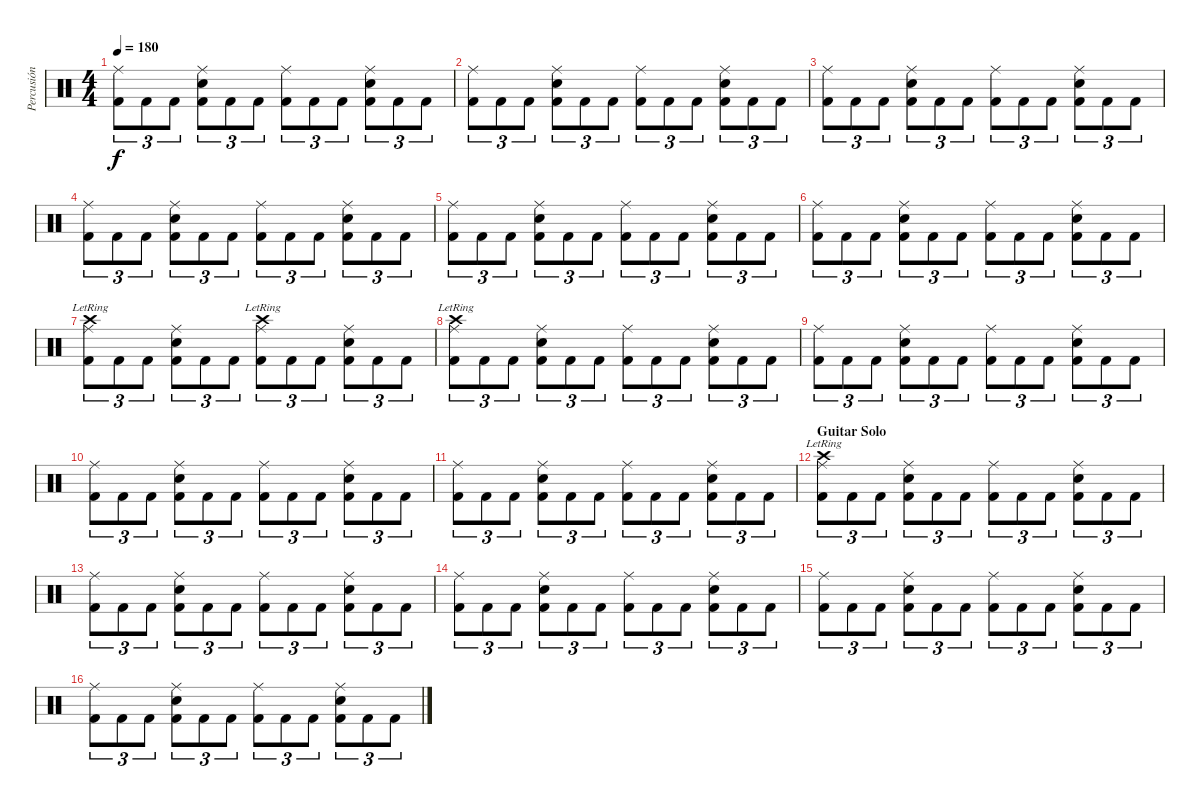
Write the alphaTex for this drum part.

\track ("Percusión" "Percusión") {instrument percussion}
\staff {score}
\articulation defaults
\ts (4 4)
\tempo 180
\clef neutral
\ks c
("Ride (middle)" "Kick (hit) 2").8{tu (3 2) dy f} "Kick (hit) 2".8{tu (3 2)} "Kick (hit) 2".8{tu (3 2)} ("Ride (middle)" "Snare (hit) 2" "Kick (hit) 2").8{tu (3 2)} "Kick (hit) 2".8{tu (3 2)} "Kick (hit) 2".8{tu (3 2)} ("Ride (middle)" "Kick (hit) 2").8{tu (3 2)} "Kick (hit) 2".8{tu (3 2)} "Kick (hit) 2".8{tu (3 2)} ("Ride (middle)" "Snare (hit) 2" "Kick (hit) 2").8{tu (3 2)} "Kick (hit) 2".8{tu (3 2)} "Kick (hit) 2".8{tu (3 2)} |
("Ride (middle)" "Kick (hit) 2").8{tu (3 2)} "Kick (hit) 2".8{tu (3 2)} "Kick (hit) 2".8{tu (3 2)} ("Ride (middle)" "Snare (hit) 2" "Kick (hit) 2").8{tu (3 2)} "Kick (hit) 2".8{tu (3 2)} "Kick (hit) 2".8{tu (3 2)} ("Ride (middle)" "Kick (hit) 2").8{tu (3 2)} "Kick (hit) 2".8{tu (3 2)} "Kick (hit) 2".8{tu (3 2)} ("Ride (middle)" "Snare (hit) 2" "Kick (hit) 2").8{tu (3 2)} "Kick (hit) 2".8{tu (3 2)} "Kick (hit) 2".8{tu (3 2)} |
("Ride (middle)" "Kick (hit) 2").8{tu (3 2)} "Kick (hit) 2".8{tu (3 2)} "Kick (hit) 2".8{tu (3 2)} ("Ride (middle)" "Snare (hit) 2" "Kick (hit) 2").8{tu (3 2)} "Kick (hit) 2".8{tu (3 2)} "Kick (hit) 2".8{tu (3 2)} ("Ride (middle)" "Kick (hit) 2").8{tu (3 2)} "Kick (hit) 2".8{tu (3 2)} "Kick (hit) 2".8{tu (3 2)} ("Ride (middle)" "Snare (hit) 2" "Kick (hit) 2").8{tu (3 2)} "Kick (hit) 2".8{tu (3 2)} "Kick (hit) 2".8{tu (3 2)} |
("Ride (middle)" "Kick (hit) 2").8{tu (3 2)} "Kick (hit) 2".8{tu (3 2)} "Kick (hit) 2".8{tu (3 2)} ("Ride (middle)" "Snare (hit) 2" "Kick (hit) 2").8{tu (3 2)} "Kick (hit) 2".8{tu (3 2)} "Kick (hit) 2".8{tu (3 2)} ("Ride (middle)" "Kick (hit) 2").8{tu (3 2)} "Kick (hit) 2".8{tu (3 2)} "Kick (hit) 2".8{tu (3 2)} ("Ride (middle)" "Snare (hit) 2" "Kick (hit) 2").8{tu (3 2)} "Kick (hit) 2".8{tu (3 2)} "Kick (hit) 2".8{tu (3 2)} |
("Ride (middle)" "Kick (hit) 2").8{tu (3 2)} "Kick (hit) 2".8{tu (3 2)} "Kick (hit) 2".8{tu (3 2)} ("Ride (middle)" "Snare (hit) 2" "Kick (hit) 2").8{tu (3 2)} "Kick (hit) 2".8{tu (3 2)} "Kick (hit) 2".8{tu (3 2)} ("Ride (middle)" "Kick (hit) 2").8{tu (3 2)} "Kick (hit) 2".8{tu (3 2)} "Kick (hit) 2".8{tu (3 2)} ("Ride (middle)" "Snare (hit) 2" "Kick (hit) 2").8{tu (3 2)} "Kick (hit) 2".8{tu (3 2)} "Kick (hit) 2".8{tu (3 2)} |
("Ride (middle)" "Kick (hit) 2").8{tu (3 2)} "Kick (hit) 2".8{tu (3 2)} "Kick (hit) 2".8{tu (3 2)} ("Ride (middle)" "Snare (hit) 2" "Kick (hit) 2").8{tu (3 2)} "Kick (hit) 2".8{tu (3 2)} "Kick (hit) 2".8{tu (3 2)} ("Ride (middle)" "Kick (hit) 2").8{tu (3 2)} "Kick (hit) 2".8{tu (3 2)} "Kick (hit) 2".8{tu (3 2)} ("Ride (middle)" "Snare (hit) 2" "Kick (hit) 2").8{tu (3 2)} "Kick (hit) 2".8{tu (3 2)} "Kick (hit) 2".8{tu (3 2)} |
("Crash high (hit)"{lr} "Ride (middle)" "Kick (hit) 2").8{tu (3 2)} "Kick (hit) 2".8{tu (3 2)} "Kick (hit) 2".8{tu (3 2)} ("Ride (middle)" "Snare (hit) 2" "Kick (hit) 2").8{tu (3 2)} "Kick (hit) 2".8{tu (3 2)} "Kick (hit) 2".8{tu (3 2)} ("Crash high (hit)"{lr} "Ride (middle)" "Kick (hit) 2").8{tu (3 2)} "Kick (hit) 2".8{tu (3 2)} "Kick (hit) 2".8{tu (3 2)} ("Ride (middle)" "Snare (hit) 2" "Kick (hit) 2").8{tu (3 2)} "Kick (hit) 2".8{tu (3 2)} "Kick (hit) 2".8{tu (3 2)} |
("Crash high (hit)"{lr} "Ride (middle)" "Kick (hit) 2").8{tu (3 2)} "Kick (hit) 2".8{tu (3 2)} "Kick (hit) 2".8{tu (3 2)} ("Ride (middle)" "Snare (hit) 2" "Kick (hit) 2").8{tu (3 2)} "Kick (hit) 2".8{tu (3 2)} "Kick (hit) 2".8{tu (3 2)} ("Ride (middle)" "Kick (hit) 2").8{tu (3 2)} "Kick (hit) 2".8{tu (3 2)} "Kick (hit) 2".8{tu (3 2)} ("Ride (middle)" "Snare (hit) 2" "Kick (hit) 2").8{tu (3 2)} "Kick (hit) 2".8{tu (3 2)} "Kick (hit) 2".8{tu (3 2)} |
("Ride (middle)" "Kick (hit) 2").8{tu (3 2)} "Kick (hit) 2".8{tu (3 2)} "Kick (hit) 2".8{tu (3 2)} ("Ride (middle)" "Snare (hit) 2" "Kick (hit) 2").8{tu (3 2)} "Kick (hit) 2".8{tu (3 2)} "Kick (hit) 2".8{tu (3 2)} ("Ride (middle)" "Kick (hit) 2").8{tu (3 2)} "Kick (hit) 2".8{tu (3 2)} "Kick (hit) 2".8{tu (3 2)} ("Ride (middle)" "Snare (hit) 2" "Kick (hit) 2").8{tu (3 2)} "Kick (hit) 2".8{tu (3 2)} "Kick (hit) 2".8{tu (3 2)} |
("Ride (middle)" "Kick (hit) 2").8{tu (3 2)} "Kick (hit) 2".8{tu (3 2)} "Kick (hit) 2".8{tu (3 2)} ("Ride (middle)" "Snare (hit) 2" "Kick (hit) 2").8{tu (3 2)} "Kick (hit) 2".8{tu (3 2)} "Kick (hit) 2".8{tu (3 2)} ("Ride (middle)" "Kick (hit) 2").8{tu (3 2)} "Kick (hit) 2".8{tu (3 2)} "Kick (hit) 2".8{tu (3 2)} ("Ride (middle)" "Snare (hit) 2" "Kick (hit) 2").8{tu (3 2)} "Kick (hit) 2".8{tu (3 2)} "Kick (hit) 2".8{tu (3 2)} |
("Ride (middle)" "Kick (hit) 2").8{tu (3 2)} "Kick (hit) 2".8{tu (3 2)} "Kick (hit) 2".8{tu (3 2)} ("Ride (middle)" "Snare (hit) 2" "Kick (hit) 2").8{tu (3 2)} "Kick (hit) 2".8{tu (3 2)} "Kick (hit) 2".8{tu (3 2)} ("Ride (middle)" "Kick (hit) 2").8{tu (3 2)} "Kick (hit) 2".8{tu (3 2)} "Kick (hit) 2".8{tu (3 2)} ("Ride (middle)" "Snare (hit) 2" "Kick (hit) 2").8{tu (3 2)} "Kick (hit) 2".8{tu (3 2)} "Kick (hit) 2".8{tu (3 2)} |
\section ("" "Guitar Solo")
("Crash high (hit)"{lr} "Ride (middle)" "Kick (hit) 2").8{tu (3 2)} "Kick (hit) 2".8{tu (3 2)} "Kick (hit) 2".8{tu (3 2)} ("Ride (middle)" "Snare (hit) 2" "Kick (hit) 2").8{tu (3 2)} "Kick (hit) 2".8{tu (3 2)} "Kick (hit) 2".8{tu (3 2)} ("Ride (middle)" "Kick (hit) 2").8{tu (3 2)} "Kick (hit) 2".8{tu (3 2)} "Kick (hit) 2".8{tu (3 2)} ("Ride (middle)" "Snare (hit) 2" "Kick (hit) 2").8{tu (3 2)} "Kick (hit) 2".8{tu (3 2)} "Kick (hit) 2".8{tu (3 2)} |
("Ride (middle)" "Kick (hit) 2").8{tu (3 2)} "Kick (hit) 2".8{tu (3 2)} "Kick (hit) 2".8{tu (3 2)} ("Ride (middle)" "Snare (hit) 2" "Kick (hit) 2").8{tu (3 2)} "Kick (hit) 2".8{tu (3 2)} "Kick (hit) 2".8{tu (3 2)} ("Ride (middle)" "Kick (hit) 2").8{tu (3 2)} "Kick (hit) 2".8{tu (3 2)} "Kick (hit) 2".8{tu (3 2)} ("Ride (middle)" "Snare (hit) 2" "Kick (hit) 2").8{tu (3 2)} "Kick (hit) 2".8{tu (3 2)} "Kick (hit) 2".8{tu (3 2)} |
("Ride (middle)" "Kick (hit) 2").8{tu (3 2)} "Kick (hit) 2".8{tu (3 2)} "Kick (hit) 2".8{tu (3 2)} ("Ride (middle)" "Snare (hit) 2" "Kick (hit) 2").8{tu (3 2)} "Kick (hit) 2".8{tu (3 2)} "Kick (hit) 2".8{tu (3 2)} ("Ride (middle)" "Kick (hit) 2").8{tu (3 2)} "Kick (hit) 2".8{tu (3 2)} "Kick (hit) 2".8{tu (3 2)} ("Ride (middle)" "Snare (hit) 2" "Kick (hit) 2").8{tu (3 2)} "Kick (hit) 2".8{tu (3 2)} "Kick (hit) 2".8{tu (3 2)} |
("Ride (middle)" "Kick (hit) 2").8{tu (3 2)} "Kick (hit) 2".8{tu (3 2)} "Kick (hit) 2".8{tu (3 2)} ("Ride (middle)" "Snare (hit) 2" "Kick (hit) 2").8{tu (3 2)} "Kick (hit) 2".8{tu (3 2)} "Kick (hit) 2".8{tu (3 2)} ("Ride (middle)" "Kick (hit) 2").8{tu (3 2)} "Kick (hit) 2".8{tu (3 2)} "Kick (hit) 2".8{tu (3 2)} ("Ride (middle)" "Snare (hit) 2" "Kick (hit) 2").8{tu (3 2)} "Kick (hit) 2".8{tu (3 2)} "Kick (hit) 2".8{tu (3 2)} |
("Ride (middle)" "Kick (hit) 2").8{tu (3 2)} "Kick (hit) 2".8{tu (3 2)} "Kick (hit) 2".8{tu (3 2)} ("Ride (middle)" "Snare (hit) 2" "Kick (hit) 2").8{tu (3 2)} "Kick (hit) 2".8{tu (3 2)} "Kick (hit) 2".8{tu (3 2)} ("Ride (middle)" "Kick (hit) 2").8{tu (3 2)} "Kick (hit) 2".8{tu (3 2)} "Kick (hit) 2".8{tu (3 2)} ("Ride (middle)" "Snare (hit) 2" "Kick (hit) 2").8{tu (3 2)} "Kick (hit) 2".8{tu (3 2)} "Kick (hit) 2".8{tu (3 2)}
